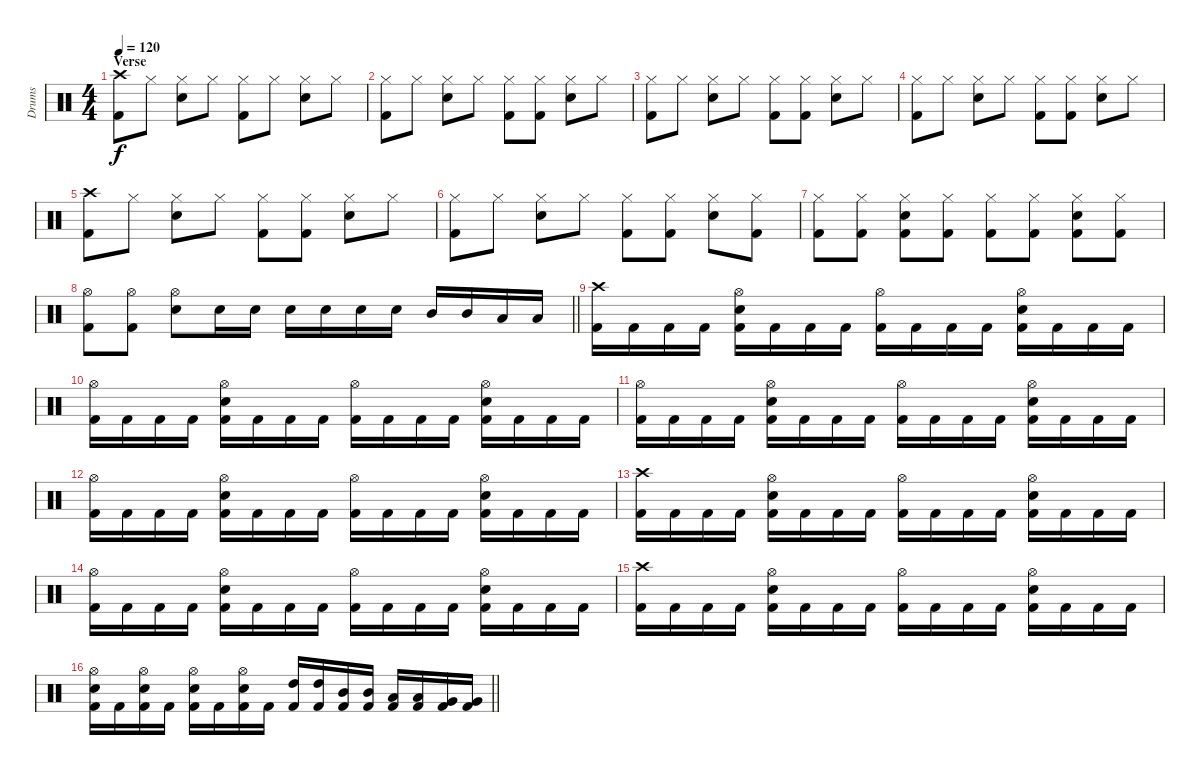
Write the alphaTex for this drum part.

\track ("Drums" "Drums") {instrument percussion}
\staff {score}
\articulation defaults
\ts (4 4)
\section ("" "Verse")
\tempo 120
\clef neutral
\ks c
("Crash high (hit)" "Kick (hit) 2").8{dy f} "Hi-Hat (closed)".8 ("Hi-Hat (closed)" "Electric Snare (hit)").8 "Hi-Hat (closed)".8 ("Hi-Hat (closed)" "Kick (hit) 2").8 "Hi-Hat (closed)".8 ("Hi-Hat (closed)" "Electric Snare (hit)").8 "Hi-Hat (closed)".8 |
("Hi-Hat (closed)" "Kick (hit) 2").8 "Hi-Hat (closed)".8 ("Hi-Hat (closed)" "Electric Snare (hit)").8 "Hi-Hat (closed)".8 ("Hi-Hat (closed)" "Kick (hit) 2").8 ("Hi-Hat (closed)" "Kick (hit) 2").8 ("Hi-Hat (closed)" "Electric Snare (hit)").8 "Hi-Hat (closed)".8 |
("Hi-Hat (closed)" "Kick (hit) 2").8 "Hi-Hat (closed)".8 ("Hi-Hat (closed)" "Electric Snare (hit)").8 "Hi-Hat (closed)".8 ("Hi-Hat (closed)" "Kick (hit) 2").8 ("Hi-Hat (closed)" "Kick (hit) 2").8 ("Hi-Hat (closed)" "Electric Snare (hit)").8 "Hi-Hat (closed)".8 |
("Hi-Hat (closed)" "Kick (hit) 2").8 "Hi-Hat (closed)".8 ("Hi-Hat (closed)" "Electric Snare (hit)").8 "Hi-Hat (closed)".8 ("Hi-Hat (closed)" "Kick (hit) 2").8 ("Hi-Hat (closed)" "Kick (hit) 2").8 ("Hi-Hat (closed)" "Electric Snare (hit)").8 "Hi-Hat (closed)".8 |
("Crash high (hit)" "Kick (hit) 2").8 "Hi-Hat (closed)".8 ("Hi-Hat (closed)" "Electric Snare (hit)").8 "Hi-Hat (closed)".8 ("Hi-Hat (closed)" "Kick (hit) 2").8 ("Hi-Hat (closed)" "Kick (hit) 2").8 ("Hi-Hat (closed)" "Electric Snare (hit)").8 "Hi-Hat (closed)".8 |
("Hi-Hat (closed)" "Kick (hit) 2").8 "Hi-Hat (closed)".8 ("Hi-Hat (closed)" "Electric Snare (hit)").8 "Hi-Hat (closed)".8 ("Hi-Hat (closed)" "Kick (hit) 2").8 ("Hi-Hat (closed)" "Kick (hit) 2").8 ("Hi-Hat (closed)" "Electric Snare (hit)").8 ("Hi-Hat (closed)" "Kick (hit) 2").8 |
("Hi-Hat (closed)" "Kick (hit) 2").8 ("Hi-Hat (closed)" "Kick (hit) 2").8 ("Hi-Hat (closed)" "Electric Snare (hit)" "Kick (hit) 2").8 ("Hi-Hat (closed)" "Kick (hit) 2").8 ("Hi-Hat (closed)" "Kick (hit) 2").8 ("Hi-Hat (closed)" "Kick (hit) 2").8 ("Hi-Hat (closed)" "Electric Snare (hit)" "Kick (hit) 2").8 ("Hi-Hat (closed)" "Kick (hit) 2").8 |
\barLineRight lightlight
("Hi-Hat (open)" "Kick (hit) 2").8 ("Hi-Hat (open)" "Kick (hit) 2").8 ("Hi-Hat (open)" "Electric Snare (hit)").8 "Electric Snare (hit)".16 "Electric Snare (hit)".16 "Electric Snare (hit)".16 "Electric Snare (hit)".16 "Electric Snare (hit)".16 "Electric Snare (hit)".16 "Mid Tom (hit)".16 "Mid Tom (hit)".16 "Low Tom (hit)".16 "Low Tom (hit)".16 |
("Crash high (hit)" "Kick (hit) 2").16 "Kick (hit) 2".16 "Kick (hit) 2".16 "Kick (hit) 2".16 ("Hi-Hat (open)" "Electric Snare (hit)" "Kick (hit) 2").16 "Kick (hit) 2".16 "Kick (hit) 2".16 "Kick (hit) 2".16 ("Hi-Hat (open)" "Kick (hit) 2").16 "Kick (hit) 2".16 "Kick (hit) 2".16 "Kick (hit) 2".16 ("Hi-Hat (open)" "Electric Snare (hit)" "Kick (hit) 2").16 "Kick (hit) 2".16 "Kick (hit) 2".16 "Kick (hit) 2".16 |
("Hi-Hat (open)" "Kick (hit) 2").16 "Kick (hit) 2".16 "Kick (hit) 2".16 "Kick (hit) 2".16 ("Hi-Hat (open)" "Electric Snare (hit)" "Kick (hit) 2").16 "Kick (hit) 2".16 "Kick (hit) 2".16 "Kick (hit) 2".16 ("Hi-Hat (open)" "Kick (hit) 2").16 "Kick (hit) 2".16 "Kick (hit) 2".16 "Kick (hit) 2".16 ("Hi-Hat (open)" "Electric Snare (hit)" "Kick (hit) 2").16 "Kick (hit) 2".16 "Kick (hit) 2".16 "Kick (hit) 2".16 |
("Hi-Hat (open)" "Kick (hit) 2").16 "Kick (hit) 2".16 "Kick (hit) 2".16 "Kick (hit) 2".16 ("Hi-Hat (open)" "Electric Snare (hit)" "Kick (hit) 2").16 "Kick (hit) 2".16 "Kick (hit) 2".16 "Kick (hit) 2".16 ("Hi-Hat (open)" "Kick (hit) 2").16 "Kick (hit) 2".16 "Kick (hit) 2".16 "Kick (hit) 2".16 ("Hi-Hat (open)" "Electric Snare (hit)" "Kick (hit) 2").16 "Kick (hit) 2".16 "Kick (hit) 2".16 "Kick (hit) 2".16 |
("Hi-Hat (open)" "Kick (hit) 2").16 "Kick (hit) 2".16 "Kick (hit) 2".16 "Kick (hit) 2".16 ("Hi-Hat (open)" "Electric Snare (hit)" "Kick (hit) 2").16 "Kick (hit) 2".16 "Kick (hit) 2".16 "Kick (hit) 2".16 ("Hi-Hat (open)" "Kick (hit) 2").16 "Kick (hit) 2".16 "Kick (hit) 2".16 "Kick (hit) 2".16 ("Hi-Hat (open)" "Electric Snare (hit)" "Kick (hit) 2").16 "Kick (hit) 2".16 "Kick (hit) 2".16 "Kick (hit) 2".16 |
("Crash high (hit)" "Kick (hit) 2").16 "Kick (hit) 2".16 "Kick (hit) 2".16 "Kick (hit) 2".16 ("Hi-Hat (open)" "Electric Snare (hit)" "Kick (hit) 2").16 "Kick (hit) 2".16 "Kick (hit) 2".16 "Kick (hit) 2".16 ("Hi-Hat (open)" "Kick (hit) 2").16 "Kick (hit) 2".16 "Kick (hit) 2".16 "Kick (hit) 2".16 ("Hi-Hat (open)" "Electric Snare (hit)" "Kick (hit) 2").16 "Kick (hit) 2".16 "Kick (hit) 2".16 "Kick (hit) 2".16 |
("Hi-Hat (open)" "Kick (hit) 2").16 "Kick (hit) 2".16 "Kick (hit) 2".16 "Kick (hit) 2".16 ("Hi-Hat (open)" "Electric Snare (hit)" "Kick (hit) 2").16 "Kick (hit) 2".16 "Kick (hit) 2".16 "Kick (hit) 2".16 ("Hi-Hat (open)" "Kick (hit) 2").16 "Kick (hit) 2".16 "Kick (hit) 2".16 "Kick (hit) 2".16 ("Hi-Hat (open)" "Electric Snare (hit)" "Kick (hit) 2").16 "Kick (hit) 2".16 "Kick (hit) 2".16 "Kick (hit) 2".16 |
("Crash high (hit)" "Kick (hit) 2").16 "Kick (hit) 2".16 "Kick (hit) 2".16 "Kick (hit) 2".16 ("Hi-Hat (open)" "Electric Snare (hit)" "Kick (hit) 2").16 "Kick (hit) 2".16 "Kick (hit) 2".16 "Kick (hit) 2".16 ("Hi-Hat (open)" "Kick (hit) 2").16 "Kick (hit) 2".16 "Kick (hit) 2".16 "Kick (hit) 2".16 ("Hi-Hat (open)" "Electric Snare (hit)" "Kick (hit) 2").16 "Kick (hit) 2".16 "Kick (hit) 2".16 "Kick (hit) 2".16 |
\barLineRight lightlight
("Hi-Hat (open)" "Electric Snare (hit)" "Kick (hit) 2").16 "Kick (hit) 2".16 ("Hi-Hat (open)" "Electric Snare (hit)" "Kick (hit) 2").16 "Kick (hit) 2".16 ("Hi-Hat (open)" "Electric Snare (hit)" "Kick (hit) 2").16 "Kick (hit) 2".16 ("Hi-Hat (open)" "Electric Snare (hit)" "Kick (hit) 2").16 "Kick (hit) 2".16 ("High Tom (hit)" "Kick (hit) 2").16 ("High Tom (hit)" "Kick (hit) 2").16 ("Mid Tom (hit)" "Kick (hit) 2").16 ("Mid Tom (hit)" "Kick (hit) 2").16 ("Low Tom (hit)" "Kick (hit) 2").16 ("Low Tom (hit)" "Kick (hit) 2").16 ("Very Low Tom (hit)" "Kick (hit) 2").16 ("Very Low Tom (hit)" "Kick (hit) 2").16
